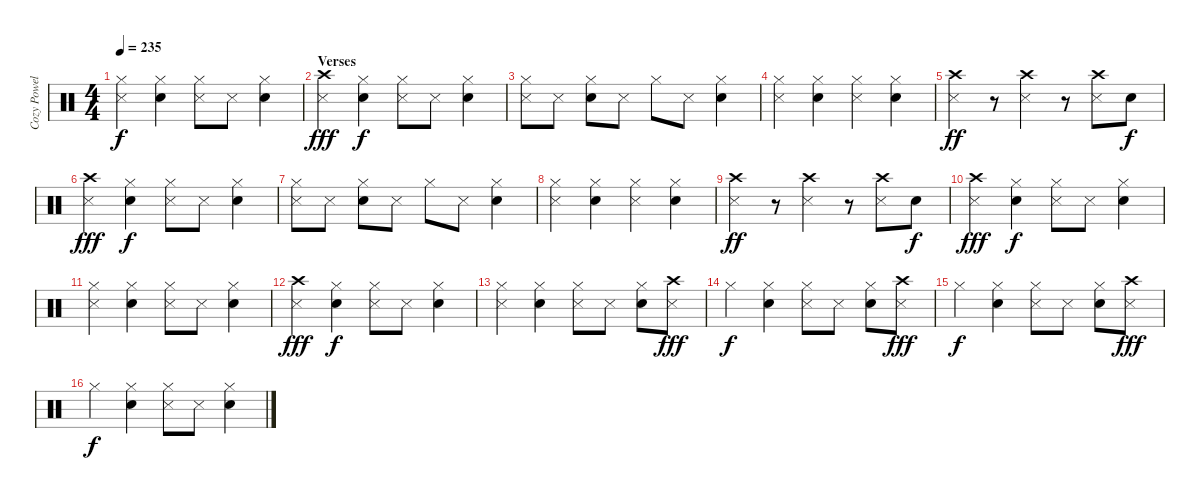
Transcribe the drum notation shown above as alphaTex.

\track ("Cozy Powell" "Cozy Powel") {instrument percussion}
\staff {score}
\articulation defaults
\ts (4 4)
\tempo 235
\clef neutral
\ks c
("Metronome (hit)" "Hi-Hat (closed)").4{dy f} ("Hi-Hat (closed)" "Electric Snare (hit)").4 ("Hi-Hat (closed)" "Metronome (hit)").8 "Metronome (hit)".8 ("Hi-Hat (closed)" "Electric Snare (hit)").4 |
\section ("" "Verses")
("Metronome (hit)" "Crash high (hit)").4{dy fff} ("Hi-Hat (closed)" "Electric Snare (hit)").4{dy f} ("Metronome (hit)" "Hi-Hat (closed)").8 "Metronome (hit)".8 ("Electric Snare (hit)" "Hi-Hat (closed)").4 |
("Hi-Hat (closed)" "Metronome (hit)").8 "Metronome (hit)".8 ("Hi-Hat (closed)" "Electric Snare (hit)").8 "Metronome (hit)".8 "Hi-Hat (closed)".8 "Metronome (hit)".8 ("Hi-Hat (closed)" "Electric Snare (hit)").4 |
("Metronome (hit)" "Hi-Hat (closed)").4 ("Hi-Hat (closed)" "Electric Snare (hit)").4 ("Hi-Hat (closed)" "Metronome (hit)").4 ("Hi-Hat (closed)" "Electric Snare (hit)").4 |
("Metronome (hit)" "Crash high (hit)").4{dy ff} r.8 ("Crash high (hit)" "Metronome (hit)").4 r.8 ("Crash high (hit)" "Metronome (hit)").8 "Electric Snare (hit)".8{dy f} |
("Crash high (hit)" "Metronome (hit)").4{dy fff} ("Electric Snare (hit)" "Hi-Hat (closed)").4{dy f} ("Hi-Hat (closed)" "Metronome (hit)").8 "Metronome (hit)".8 ("Electric Snare (hit)" "Hi-Hat (closed)").4 |
("Metronome (hit)" "Hi-Hat (closed)").8 "Metronome (hit)".8 ("Electric Snare (hit)" "Hi-Hat (closed)").8 "Metronome (hit)".8 "Hi-Hat (closed)".8 "Metronome (hit)".8 ("Electric Snare (hit)" "Hi-Hat (closed)").4 |
("Hi-Hat (closed)" "Metronome (hit)").4 ("Electric Snare (hit)" "Hi-Hat (closed)").4 ("Metronome (hit)" "Hi-Hat (closed)").4 ("Hi-Hat (closed)" "Electric Snare (hit)").4 |
("Metronome (hit)" "Crash high (hit)").4{dy ff} r.8 ("Metronome (hit)" "Crash high (hit)").4 r.8 ("Metronome (hit)" "Crash high (hit)").8 "Electric Snare (hit)".8{dy f} |
("Crash high (hit)" "Metronome (hit)").4{dy fff} ("Electric Snare (hit)" "Hi-Hat (closed)").4{dy f} ("Metronome (hit)" "Hi-Hat (closed)").8 "Metronome (hit)".8 ("Electric Snare (hit)" "Hi-Hat (closed)").4 |
("Hi-Hat (closed)" "Metronome (hit)").4 ("Hi-Hat (closed)" "Electric Snare (hit)").4 ("Metronome (hit)" "Hi-Hat (closed)").8 "Metronome (hit)".8 ("Electric Snare (hit)" "Hi-Hat (closed)").4 |
("Metronome (hit)" "Crash high (hit)").4{dy fff} ("Hi-Hat (closed)" "Electric Snare (hit)").4{dy f} ("Metronome (hit)" "Hi-Hat (closed)").8 "Metronome (hit)".8 ("Hi-Hat (closed)" "Electric Snare (hit)").4 |
("Hi-Hat (closed)" "Metronome (hit)").4 ("Electric Snare (hit)" "Hi-Hat (closed)").4 ("Metronome (hit)" "Hi-Hat (closed)").8 "Metronome (hit)".8 ("Hi-Hat (closed)" "Electric Snare (hit)").8 ("Crash high (hit)" "Metronome (hit)").8{dy fff} |
"Hi-Hat (closed)".4{dy f} ("Hi-Hat (closed)" "Electric Snare (hit)").4 ("Metronome (hit)" "Hi-Hat (closed)").8 "Metronome (hit)".8 ("Hi-Hat (closed)" "Electric Snare (hit)").8 ("Crash high (hit)" "Metronome (hit)").8{dy fff} |
"Hi-Hat (closed)".4{dy f} ("Electric Snare (hit)" "Hi-Hat (closed)").4 ("Hi-Hat (closed)" "Metronome (hit)").8 "Metronome (hit)".8 ("Hi-Hat (closed)" "Electric Snare (hit)").8 ("Metronome (hit)" "Crash high (hit)").8{dy fff} |
"Hi-Hat (closed)".4{dy f} ("Electric Snare (hit)" "Hi-Hat (closed)").4 ("Hi-Hat (closed)" "Metronome (hit)").8 "Metronome (hit)".8 ("Hi-Hat (closed)" "Electric Snare (hit)").4
